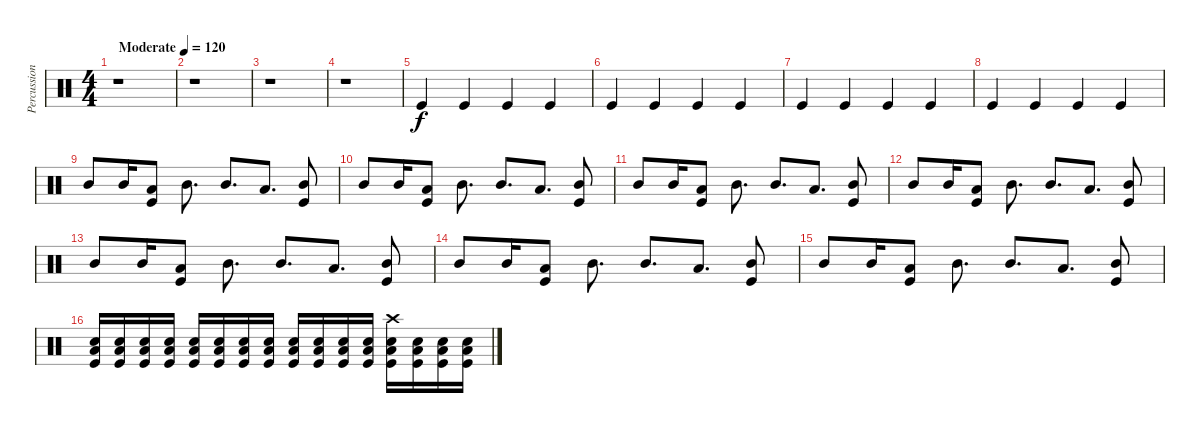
\track ("Percussion" "Percussion") {instrument percussion}
\staff {score}
\articulation defaults
\ts (4 4)
\tempo (120 "Moderate")
\clef neutral
\ks c
r.1{dy f} |
r.1 |
r.1 |
r.1 |
"Kick (hit)".4 "Kick (hit)".4 "Kick (hit)".4 "Kick (hit)".4 |
"Kick (hit)".4 "Kick (hit)".4 "Kick (hit)".4 "Kick (hit)".4 |
"Kick (hit)".4 "Kick (hit)".4 "Kick (hit)".4 "Kick (hit)".4 |
"Kick (hit)".4 "Kick (hit)".4 "Kick (hit)".4 "Kick (hit)".4 |
"Mid Tom (hit)".8 "Mid Tom (hit)".16 ("Low Tom (hit)" "Kick (hit)").8 "Mid Tom (hit)".8{d} "Mid Tom (hit)".8{d} "Low Tom (hit)".8{d} ("Mid Tom (hit)" "Kick (hit)").8 |
"Mid Tom (hit)".8 "Mid Tom (hit)".16 ("Low Tom (hit)" "Kick (hit)").8 "Mid Tom (hit)".8{d} "Mid Tom (hit)".8{d} "Low Tom (hit)".8{d} ("Mid Tom (hit)" "Kick (hit)").8 |
"Mid Tom (hit)".8 "Mid Tom (hit)".16 ("Low Tom (hit)" "Kick (hit)").8 "Mid Tom (hit)".8{d} "Mid Tom (hit)".8{d} "Low Tom (hit)".8{d} ("Mid Tom (hit)" "Kick (hit)").8 |
"Mid Tom (hit)".8 "Mid Tom (hit)".16 ("Low Tom (hit)" "Kick (hit)").8 "Mid Tom (hit)".8{d} "Mid Tom (hit)".8{d} "Low Tom (hit)".8{d} ("Mid Tom (hit)" "Kick (hit)").8 |
"Mid Tom (hit)".8 "Mid Tom (hit)".16 ("Low Tom (hit)" "Kick (hit)").8 "Mid Tom (hit)".8{d} "Mid Tom (hit)".8{d} "Low Tom (hit)".8{d} ("Mid Tom (hit)" "Kick (hit)").8 |
"Mid Tom (hit)".8 "Mid Tom (hit)".16 ("Low Tom (hit)" "Kick (hit)").8 "Mid Tom (hit)".8{d} "Mid Tom (hit)".8{d} "Low Tom (hit)".8{d} ("Mid Tom (hit)" "Kick (hit)").8 |
"Mid Tom (hit)".8 "Mid Tom (hit)".16 ("Low Tom (hit)" "Kick (hit)").8 "Mid Tom (hit)".8{d} "Mid Tom (hit)".8{d} "Low Tom (hit)".8{d} ("Mid Tom (hit)" "Kick (hit)").8 |
("Low Tom (hit)" "Snare (hit) 2" "Kick (hit)").16 ("Low Tom (hit)" "Snare (hit) 2" "Kick (hit)").16 ("Low Tom (hit)" "Snare (hit) 2" "Kick (hit)").16 ("Low Tom (hit)" "Snare (hit) 2" "Kick (hit)").16 ("Low Tom (hit)" "Snare (hit) 2" "Kick (hit)").16 ("Low Tom (hit)" "Snare (hit) 2" "Kick (hit)").16 ("Low Tom (hit)" "Snare (hit) 2" "Kick (hit)").16 ("Low Tom (hit)" "Snare (hit) 2" "Kick (hit)").16 ("Low Tom (hit)" "Snare (hit) 2" "Kick (hit)").16 ("Low Tom (hit)" "Snare (hit) 2" "Kick (hit)").16 ("Low Tom (hit)" "Snare (hit) 2" "Kick (hit)").16 ("Low Tom (hit)" "Snare (hit) 2" "Kick (hit)").16 ("Crash high (hit)" "Low Tom (hit)" "Snare (hit) 2" "Kick (hit)").16 ("Low Tom (hit)" "Snare (hit) 2" "Kick (hit)").16 ("Low Tom (hit)" "Snare (hit) 2" "Kick (hit)").16 ("Low Tom (hit)" "Snare (hit) 2" "Kick (hit)").16
